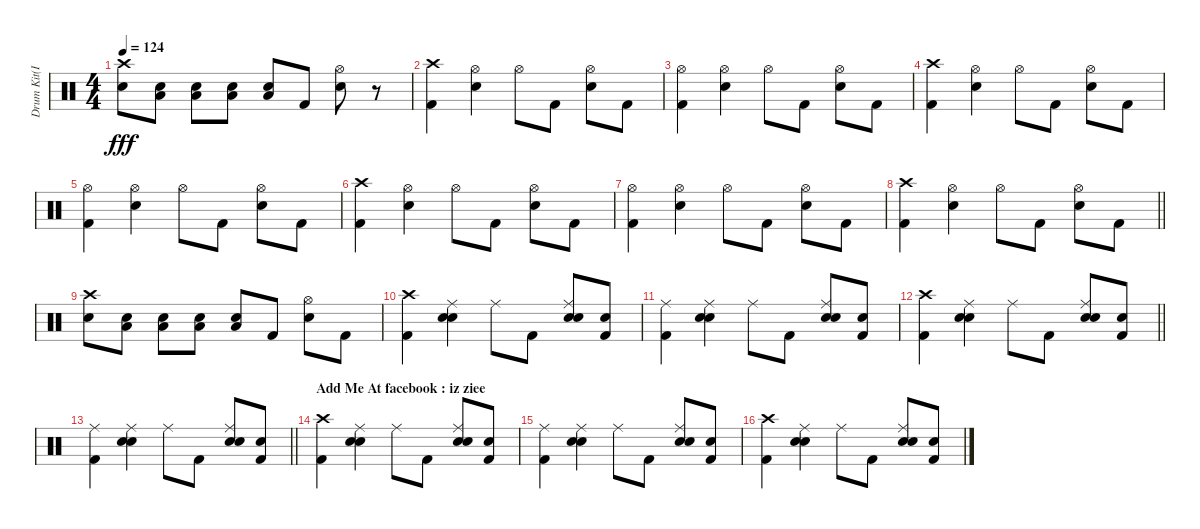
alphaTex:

\track ("Drum Kit(Inu)" "Drum Kit(I") {instrument percussion}
\staff {score}
\articulation defaults
\ts (4 4)
\tempo 124
\clef neutral
\ks c
("Crash high (hit)" "Electric Snare (hit)").8{dy fff} ("Electric Snare (hit)" "Low Tom (hit)").8 ("Electric Snare (hit)" "Low Tom (hit)").8 ("Electric Snare (hit)" "Low Tom (hit)").8 ("Low Tom (hit)" "Electric Snare (hit)").8 "Kick (hit) 2".8 ("Electric Snare (hit)" "Hi-Hat (open)").8 r.8 |
("Kick (hit) 2" "Crash high (hit)").4 ("Hi-Hat (open)" "Electric Snare (hit)").4 "Hi-Hat (open)".8 "Kick (hit) 2".8 ("Hi-Hat (open)" "Electric Snare (hit)").8 "Kick (hit) 2".8 |
("Hi-Hat (open)" "Kick (hit) 2").4 ("Electric Snare (hit)" "Hi-Hat (open)").4 "Hi-Hat (open)".8 "Kick (hit) 2".8 ("Hi-Hat (open)" "Electric Snare (hit)").8 "Kick (hit) 2".8 |
("Kick (hit) 2" "Crash high (hit)").4 ("Hi-Hat (open)" "Electric Snare (hit)").4 "Hi-Hat (open)".8 "Kick (hit) 2".8 ("Hi-Hat (open)" "Electric Snare (hit)").8 "Kick (hit) 2".8 |
("Hi-Hat (open)" "Kick (hit) 2").4 ("Electric Snare (hit)" "Hi-Hat (open)").4 "Hi-Hat (open)".8 "Kick (hit) 2".8 ("Hi-Hat (open)" "Electric Snare (hit)").8 "Kick (hit) 2".8 |
("Kick (hit) 2" "Crash high (hit)").4 ("Hi-Hat (open)" "Electric Snare (hit)").4 "Hi-Hat (open)".8 "Kick (hit) 2".8 ("Hi-Hat (open)" "Electric Snare (hit)").8 "Kick (hit) 2".8 |
("Hi-Hat (open)" "Kick (hit) 2").4 ("Electric Snare (hit)" "Hi-Hat (open)").4 "Hi-Hat (open)".8 "Kick (hit) 2".8 ("Hi-Hat (open)" "Electric Snare (hit)").8 "Kick (hit) 2".8 |
\barLineRight lightlight
("Kick (hit) 2" "Crash high (hit)").4 ("Hi-Hat (open)" "Electric Snare (hit)").4 "Hi-Hat (open)".8 "Kick (hit) 2".8 ("Hi-Hat (open)" "Electric Snare (hit)").8 "Kick (hit) 2".8 |
("Crash high (hit)" "Electric Snare (hit)").8 ("Electric Snare (hit)" "Low Tom (hit)").8 ("Electric Snare (hit)" "Low Tom (hit)").8 ("Electric Snare (hit)" "Low Tom (hit)").8 ("Low Tom (hit)" "Electric Snare (hit)").8 "Kick (hit) 2".8 ("Electric Snare (hit)" "Hi-Hat (open)").8 "Kick (hit) 2".8 |
("Kick (hit) 2" "Crash high (hit)").4 ("Ride (middle)" "Electric Snare (hit)" "Hand Clap (hit)").4 "Ride (middle)".8 "Kick (hit) 2".8 ("Ride (middle)" "Electric Snare (hit)" "Hand Clap (hit)").8 ("Kick (hit) 2" "Hand Clap (hit)").8 |
("Ride (middle)" "Kick (hit) 2").4 ("Electric Snare (hit)" "Ride (middle)" "Hand Clap (hit)").4 "Ride (middle)".8 "Kick (hit) 2".8 ("Electric Snare (hit)" "Ride (middle)" "Hand Clap (hit)").8 ("Kick (hit) 2" "Hand Clap (hit)").8 |
\barLineRight lightlight
("Crash high (hit)" "Kick (hit) 2").4 ("Electric Snare (hit)" "Ride (middle)" "Hand Clap (hit)").4 "Ride (middle)".8 "Kick (hit) 2".8 ("Electric Snare (hit)" "Ride (middle)" "Hand Clap (hit)").8 ("Kick (hit) 2" "Hand Clap (hit)").8 |
\barLineRight lightlight
("Ride (middle)" "Kick (hit) 2").4 ("Electric Snare (hit)" "Ride (middle)" "Hand Clap (hit)").4 "Ride (middle)".8 "Kick (hit) 2".8 ("Electric Snare (hit)" "Ride (middle)" "Hand Clap (hit)").8 ("Kick (hit) 2" "Hand Clap (hit)").8 |
\section ("" "Add Me At facebook : iz ziee")
("Crash high (hit)" "Kick (hit) 2").4 ("Electric Snare (hit)" "Ride (middle)" "Hand Clap (hit)").4 "Ride (middle)".8 "Kick (hit) 2".8 ("Electric Snare (hit)" "Ride (middle)" "Hand Clap (hit)").8 ("Kick (hit) 2" "Hand Clap (hit)").8 |
("Ride (middle)" "Kick (hit) 2").4 ("Electric Snare (hit)" "Ride (middle)" "Hand Clap (hit)").4 "Ride (middle)".8 "Kick (hit) 2".8 ("Electric Snare (hit)" "Ride (middle)" "Hand Clap (hit)").8 ("Kick (hit) 2" "Hand Clap (hit)").8 |
("Crash high (hit)" "Kick (hit) 2").4 ("Electric Snare (hit)" "Ride (middle)" "Hand Clap (hit)").4 "Ride (middle)".8 "Kick (hit) 2".8 ("Electric Snare (hit)" "Ride (middle)" "Hand Clap (hit)").8 ("Kick (hit) 2" "Hand Clap (hit)").8
